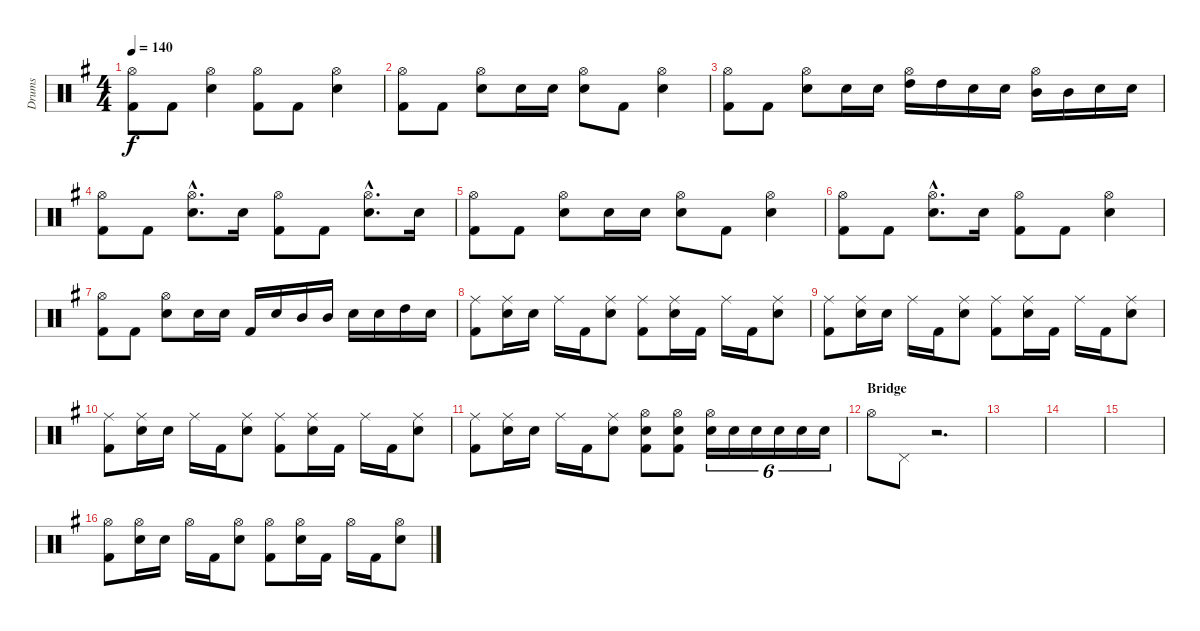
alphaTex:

\track ("Drums" "Drums") {instrument percussion}
\staff {score}
\articulation defaults
\ts (4 4)
\tempo 140
\clef neutral
\ks g
("Hi-Hat (open)" "Kick (hit) 2").8{dy f} "Kick (hit) 2".8 ("Hi-Hat (open)" "Electric Snare (hit)").4 ("Hi-Hat (open)" "Kick (hit) 2").8 "Kick (hit) 2".8 ("Hi-Hat (open)" "Electric Snare (hit)").4 |
("Hi-Hat (open)" "Kick (hit) 2").8 "Kick (hit) 2".8 ("Hi-Hat (open)" "Electric Snare (hit)").8 "Electric Snare (hit)".16 "Electric Snare (hit)".16 ("Hi-Hat (open)" "Electric Snare (hit)").8 "Kick (hit) 2".8 ("Hi-Hat (open)" "Electric Snare (hit)").4 |
("Hi-Hat (open)" "Kick (hit) 2").8 "Kick (hit) 2".8 ("Hi-Hat (open)" "Electric Snare (hit)").8 "Electric Snare (hit)".16 "Electric Snare (hit)".16 ("Hi-Hat (open)" "High Tom (hit)").16 "High Tom (hit)".16 "Electric Snare (hit)".16 "Electric Snare (hit)".16 ("Hi-Hat (open)" "Mid Tom (hit)").16 "Mid Tom (hit)".16 "Electric Snare (hit)".16 "Electric Snare (hit)".16 |
("Hi-Hat (open)" "Kick (hit) 2").8 "Kick (hit) 2".8 ("Hi-Hat (open)"{hac} "Electric Snare (hit)"{hac}).8{d} "Electric Snare (hit)".16 ("Hi-Hat (open)" "Kick (hit) 2").8 "Kick (hit) 2".8 ("Hi-Hat (open)"{hac} "Electric Snare (hit)"{hac}).8{d} "Electric Snare (hit)".16 |
("Hi-Hat (open)" "Kick (hit) 2").8 "Kick (hit) 2".8 ("Hi-Hat (open)" "Electric Snare (hit)").8 "Electric Snare (hit)".16 "Electric Snare (hit)".16 ("Hi-Hat (open)" "Electric Snare (hit)").8 "Kick (hit) 2".8 ("Hi-Hat (open)" "Electric Snare (hit)").4 |
("Hi-Hat (open)" "Kick (hit) 2").8 "Kick (hit) 2".8 ("Hi-Hat (open)"{hac} "Electric Snare (hit)"{hac}).8{d} "Electric Snare (hit)".16 ("Hi-Hat (open)" "Kick (hit) 2").8 "Kick (hit) 2".8 ("Hi-Hat (open)" "Electric Snare (hit)").4 |
("Hi-Hat (open)" "Kick (hit) 2").8 "Kick (hit) 2".8 ("Hi-Hat (open)" "Electric Snare (hit)").8 "Electric Snare (hit)".16 "Electric Snare (hit)".16 "Kick (hit) 2".16 "Electric Snare (hit)".16 "Mid Tom (hit)".16 "Mid Tom (hit)".16 "Electric Snare (hit)".16 "Electric Snare (hit)".16 "High Tom (hit)".16 "Electric Snare (hit)".16 |
("Ride (middle)" "Kick (hit) 2").8 ("Ride (middle)" "Electric Snare (hit)").16 "Electric Snare (hit)".16 "Ride (middle)".16 "Kick (hit) 2".16 ("Ride (middle)" "Electric Snare (hit)").8 ("Ride (middle)" "Kick (hit) 2").8 ("Ride (middle)" "Electric Snare (hit)").16 "Kick (hit) 2".16 "Ride (middle)".16 "Kick (hit) 2".16 ("Ride (middle)" "Electric Snare (hit)").8 |
("Ride (middle)" "Kick (hit) 2").8 ("Ride (middle)" "Electric Snare (hit)").16 "Electric Snare (hit)".16 "Ride (middle)".16 "Kick (hit) 2".16 ("Ride (middle)" "Electric Snare (hit)").8 ("Ride (middle)" "Kick (hit) 2").8 ("Ride (middle)" "Electric Snare (hit)").16 "Kick (hit) 2".16 "Ride (middle)".16 "Kick (hit) 2".16 ("Ride (middle)" "Electric Snare (hit)").8 |
("Ride (middle)" "Kick (hit) 2").8 ("Ride (middle)" "Electric Snare (hit)").16 "Electric Snare (hit)".16 "Ride (middle)".16 "Kick (hit) 2".16 ("Ride (middle)" "Electric Snare (hit)").8 ("Ride (middle)" "Kick (hit) 2").8 ("Ride (middle)" "Electric Snare (hit)").16 "Kick (hit) 2".16 "Ride (middle)".16 "Kick (hit) 2".16 ("Ride (middle)" "Electric Snare (hit)").8 |
("Ride (middle)" "Kick (hit) 2").8 ("Ride (middle)" "Electric Snare (hit)").16 "Electric Snare (hit)".16 "Ride (middle)".16 "Kick (hit) 2".16 ("Ride (middle)" "Electric Snare (hit)").8 ("Hi-Hat (open)" "Electric Snare (hit)" "Kick (hit) 2").8 ("Hi-Hat (open)" "Electric Snare (hit)" "Kick (hit) 2").8 ("Hi-Hat (open)" "Electric Snare (hit)").16{tu (6 4)} "Electric Snare (hit)".16{tu (6 4)} "Electric Snare (hit)".16{tu (6 4)} "Electric Snare (hit)".16{tu (6 4)} "Electric Snare (hit)".16{tu (6 4)} "Electric Snare (hit)".16{tu (6 4)} |
\section ("" "Bridge")
"Hi-Hat (open)".8 "Pedal Hi-Hat (hit)".8 r.2{d} |
|
|
|
("Hi-Hat (open)" "Kick (hit) 2").8 ("Hi-Hat (open)" "Electric Snare (hit)").16 "Electric Snare (hit)".16 "Hi-Hat (open)".16 "Kick (hit) 2".16 ("Hi-Hat (open)" "Electric Snare (hit)").8 ("Hi-Hat (open)" "Kick (hit) 2").8 ("Hi-Hat (open)" "Electric Snare (hit)").16 "Kick (hit) 2".16 "Hi-Hat (open)".16 "Kick (hit) 2".16 ("Hi-Hat (open)" "Electric Snare (hit)").8
